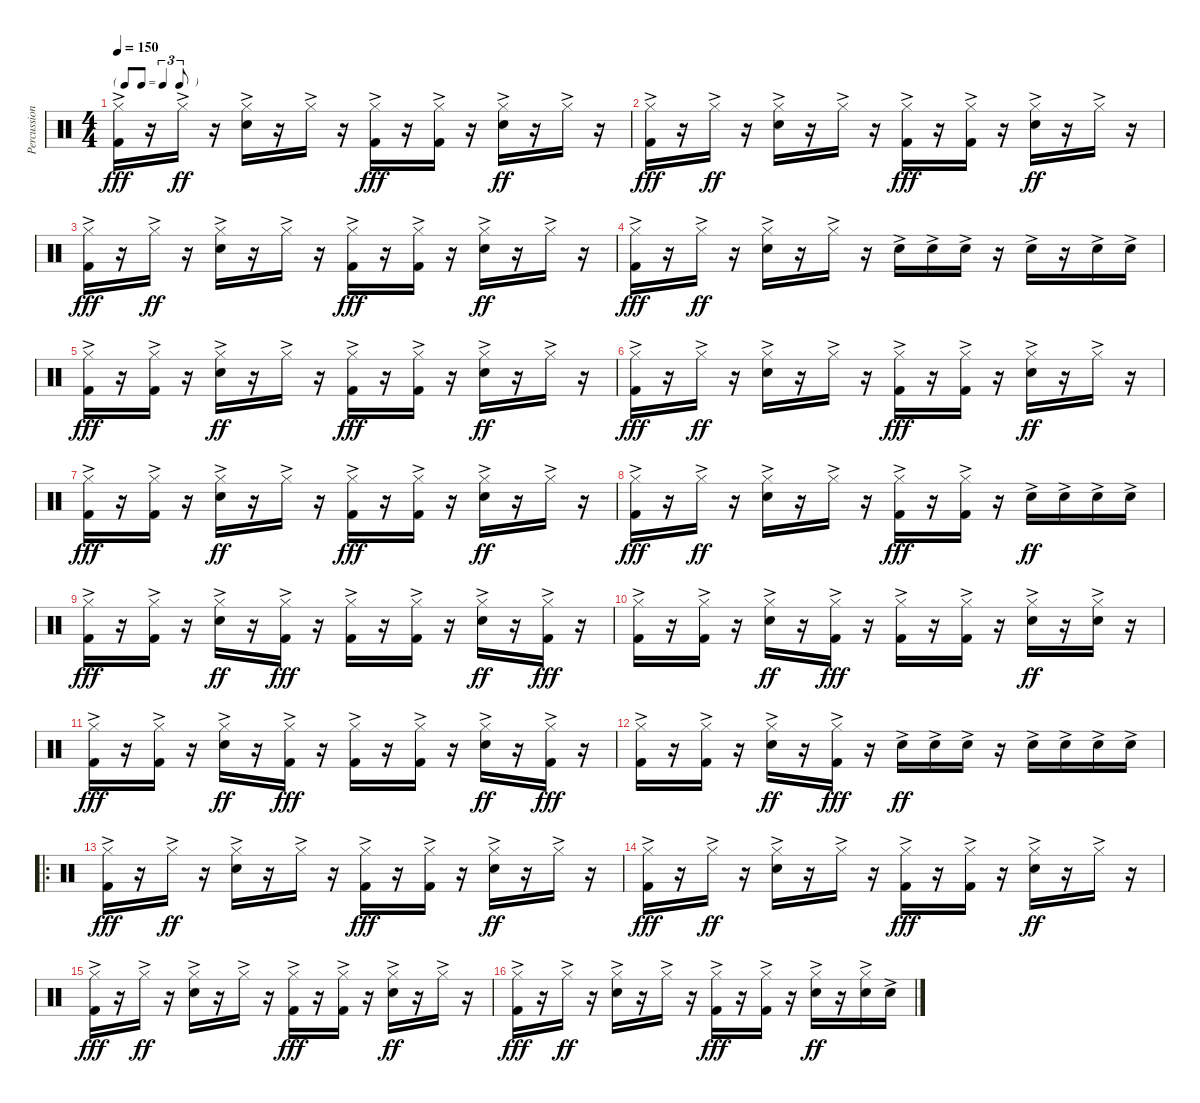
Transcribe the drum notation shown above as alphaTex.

\track ("Percussion" "Percussion") {instrument percussion}
\staff {score}
\articulation defaults
\ts (4 4)
\tf triplet8th
\tempo 150
\clef neutral
\ks c
("Hi-Hat (closed)"{ac} "Kick (hit) 2"{ac}).16{dy fff} r.16 "Hi-Hat (closed)"{ac}.16{dy ff} r.16 ("Hi-Hat (closed)"{ac} "Snare (hit) 2"{ac}).16 r.16 "Hi-Hat (closed)"{ac}.16 r.16 ("Hi-Hat (closed)"{ac} "Kick (hit) 2"{ac}).16{dy fff} r.16 ("Hi-Hat (closed)"{ac} "Kick (hit) 2"{ac}).16 r.16 ("Hi-Hat (closed)"{ac} "Snare (hit) 2"{ac}).16{dy ff} r.16 "Hi-Hat (closed)"{ac}.16 r.16 |
("Hi-Hat (closed)"{ac} "Kick (hit) 2"{ac}).16{dy fff} r.16 "Hi-Hat (closed)"{ac}.16{dy ff} r.16 ("Hi-Hat (closed)"{ac} "Snare (hit) 2"{ac}).16 r.16 "Hi-Hat (closed)"{ac}.16 r.16 ("Hi-Hat (closed)"{ac} "Kick (hit) 2"{ac}).16{dy fff} r.16 ("Hi-Hat (closed)"{ac} "Kick (hit) 2"{ac}).16 r.16 ("Hi-Hat (closed)"{ac} "Snare (hit) 2"{ac}).16{dy ff} r.16 "Hi-Hat (closed)"{ac}.16 r.16 |
("Hi-Hat (closed)"{ac} "Kick (hit) 2"{ac}).16{dy fff} r.16 "Hi-Hat (closed)"{ac}.16{dy ff} r.16 ("Hi-Hat (closed)"{ac} "Snare (hit) 2"{ac}).16 r.16 "Hi-Hat (closed)"{ac}.16 r.16 ("Hi-Hat (closed)"{ac} "Kick (hit) 2"{ac}).16{dy fff} r.16 ("Hi-Hat (closed)"{ac} "Kick (hit) 2"{ac}).16 r.16 ("Hi-Hat (closed)"{ac} "Snare (hit) 2"{ac}).16{dy ff} r.16 "Hi-Hat (closed)"{ac}.16 r.16 |
("Hi-Hat (closed)"{ac} "Kick (hit) 2"{ac}).16{dy fff} r.16 "Hi-Hat (closed)"{ac}.16{dy ff} r.16 ("Hi-Hat (closed)"{ac} "Snare (hit) 2"{ac}).16 r.16 "Hi-Hat (closed)"{ac}.16 r.16 "Snare (hit) 2"{ac}.16 "Snare (hit) 2"{ac}.16 "Snare (hit) 2"{ac}.16 r.16 "Snare (hit) 2"{ac}.16 r.16 "Snare (hit) 2"{ac}.16 "Snare (hit) 2"{ac}.16 |
("Hi-Hat (closed)"{ac} "Kick (hit) 2"{ac}).16{dy fff} r.16 ("Hi-Hat (closed)"{ac} "Kick (hit) 2"{ac}).16 r.16 ("Hi-Hat (closed)"{ac} "Snare (hit) 2"{ac}).16{dy ff} r.16 "Hi-Hat (closed)"{ac}.16 r.16 ("Hi-Hat (closed)"{ac} "Kick (hit) 2"{ac}).16{dy fff} r.16 ("Hi-Hat (closed)"{ac} "Kick (hit) 2"{ac}).16 r.16 ("Hi-Hat (closed)"{ac} "Snare (hit) 2"{ac}).16{dy ff} r.16 "Hi-Hat (closed)"{ac}.16 r.16 |
("Hi-Hat (closed)"{ac} "Kick (hit) 2"{ac}).16{dy fff} r.16 "Hi-Hat (closed)"{ac}.16{dy ff} r.16 ("Hi-Hat (closed)"{ac} "Snare (hit) 2"{ac}).16 r.16 "Hi-Hat (closed)"{ac}.16 r.16 ("Hi-Hat (closed)"{ac} "Kick (hit) 2"{ac}).16{dy fff} r.16 ("Hi-Hat (closed)"{ac} "Kick (hit) 2"{ac}).16 r.16 ("Hi-Hat (closed)"{ac} "Snare (hit) 2"{ac}).16{dy ff} r.16 "Hi-Hat (closed)"{ac}.16 r.16 |
("Hi-Hat (closed)"{ac} "Kick (hit) 2"{ac}).16{dy fff} r.16 ("Hi-Hat (closed)"{ac} "Kick (hit) 2"{ac}).16 r.16 ("Hi-Hat (closed)"{ac} "Snare (hit) 2"{ac}).16{dy ff} r.16 "Hi-Hat (closed)"{ac}.16 r.16 ("Hi-Hat (closed)"{ac} "Kick (hit) 2"{ac}).16{dy fff} r.16 ("Hi-Hat (closed)"{ac} "Kick (hit) 2"{ac}).16 r.16 ("Hi-Hat (closed)"{ac} "Snare (hit) 2"{ac}).16{dy ff} r.16 "Hi-Hat (closed)"{ac}.16 r.16 |
("Hi-Hat (closed)"{ac} "Kick (hit) 2"{ac}).16{dy fff} r.16 "Hi-Hat (closed)"{ac}.16{dy ff} r.16 ("Hi-Hat (closed)"{ac} "Snare (hit) 2"{ac}).16 r.16 "Hi-Hat (closed)"{ac}.16 r.16 ("Hi-Hat (closed)"{ac} "Kick (hit) 2"{ac}).16{dy fff} r.16 ("Hi-Hat (closed)"{ac} "Kick (hit) 2"{ac}).16 r.16 "Snare (hit) 2"{ac}.16{dy ff} "Snare (hit) 2"{ac}.16 "Snare (hit) 2"{ac}.16 "Snare (hit) 2"{ac}.16 |
("Hi-Hat (closed)"{ac} "Kick (hit) 2"{ac}).16{dy fff} r.16 ("Hi-Hat (closed)"{ac} "Kick (hit) 2"{ac}).16 r.16 ("Hi-Hat (closed)"{ac} "Snare (hit) 2"{ac}).16{dy ff} r.16 ("Hi-Hat (closed)"{ac} "Kick (hit) 2"{ac}).16{dy fff} r.16 ("Hi-Hat (closed)"{ac} "Kick (hit) 2"{ac}).16 r.16 ("Hi-Hat (closed)"{ac} "Kick (hit) 2"{ac}).16 r.16 ("Hi-Hat (closed)"{ac} "Snare (hit) 2"{ac}).16{dy ff} r.16 ("Hi-Hat (closed)"{ac} "Kick (hit) 2"{ac}).16{dy fff} r.16 |
("Hi-Hat (closed)"{ac} "Kick (hit) 2"{ac}).16 r.16 ("Hi-Hat (closed)"{ac} "Kick (hit) 2"{ac}).16 r.16 ("Hi-Hat (closed)"{ac} "Snare (hit) 2"{ac}).16{dy ff} r.16 ("Hi-Hat (closed)"{ac} "Kick (hit) 2"{ac}).16{dy fff} r.16 ("Hi-Hat (closed)"{ac} "Kick (hit) 2"{ac}).16 r.16 ("Hi-Hat (closed)"{ac} "Kick (hit) 2"{ac}).16 r.16 ("Hi-Hat (closed)"{ac} "Snare (hit) 2"{ac}).16{dy ff} r.16 ("Hi-Hat (closed)"{ac} "Snare (hit) 2"{ac}).16 r.16 |
("Hi-Hat (closed)"{ac} "Kick (hit) 2"{ac}).16{dy fff} r.16 ("Hi-Hat (closed)"{ac} "Kick (hit) 2"{ac}).16 r.16 ("Hi-Hat (closed)"{ac} "Snare (hit) 2"{ac}).16{dy ff} r.16 ("Hi-Hat (closed)"{ac} "Kick (hit) 2"{ac}).16{dy fff} r.16 ("Hi-Hat (closed)"{ac} "Kick (hit) 2"{ac}).16 r.16 ("Hi-Hat (closed)"{ac} "Kick (hit) 2"{ac}).16 r.16 ("Hi-Hat (closed)"{ac} "Snare (hit) 2"{ac}).16{dy ff} r.16 ("Hi-Hat (closed)"{ac} "Kick (hit) 2"{ac}).16{dy fff} r.16 |
("Hi-Hat (closed)"{ac} "Kick (hit) 2"{ac}).16 r.16 ("Hi-Hat (closed)"{ac} "Kick (hit) 2"{ac}).16 r.16 ("Hi-Hat (closed)"{ac} "Snare (hit) 2"{ac}).16{dy ff} r.16 ("Hi-Hat (closed)"{ac} "Kick (hit) 2"{ac}).16{dy fff} r.16 "Snare (hit) 2"{ac}.16{dy ff} "Snare (hit) 2"{ac}.16 "Snare (hit) 2"{ac}.16 r.16 "Snare (hit) 2"{ac}.16 "Snare (hit) 2"{ac}.16 "Snare (hit) 2"{ac}.16 "Snare (hit) 2"{ac}.16 |
\ro
("Hi-Hat (closed)"{ac} "Kick (hit) 2"{ac}).16{dy fff} r.16 "Hi-Hat (closed)"{ac}.16{dy ff} r.16 ("Hi-Hat (closed)"{ac} "Snare (hit) 2"{ac}).16 r.16 "Hi-Hat (closed)"{ac}.16 r.16 ("Hi-Hat (closed)"{ac} "Kick (hit) 2"{ac}).16{dy fff} r.16 ("Hi-Hat (closed)"{ac} "Kick (hit) 2"{ac}).16 r.16 ("Hi-Hat (closed)"{ac} "Snare (hit) 2"{ac}).16{dy ff} r.16 "Hi-Hat (closed)"{ac}.16 r.16 |
("Hi-Hat (closed)"{ac} "Kick (hit) 2"{ac}).16{dy fff} r.16 "Hi-Hat (closed)"{ac}.16{dy ff} r.16 ("Hi-Hat (closed)"{ac} "Snare (hit) 2"{ac}).16 r.16 "Hi-Hat (closed)"{ac}.16 r.16 ("Hi-Hat (closed)"{ac} "Kick (hit) 2"{ac}).16{dy fff} r.16 ("Hi-Hat (closed)"{ac} "Kick (hit) 2"{ac}).16 r.16 ("Hi-Hat (closed)"{ac} "Snare (hit) 2"{ac}).16{dy ff} r.16 "Hi-Hat (closed)"{ac}.16 r.16 |
("Hi-Hat (closed)"{ac} "Kick (hit) 2"{ac}).16{dy fff} r.16 "Hi-Hat (closed)"{ac}.16{dy ff} r.16 ("Hi-Hat (closed)"{ac} "Snare (hit) 2"{ac}).16 r.16 "Hi-Hat (closed)"{ac}.16 r.16 ("Hi-Hat (closed)"{ac} "Kick (hit) 2"{ac}).16{dy fff} r.16 ("Hi-Hat (closed)"{ac} "Kick (hit) 2"{ac}).16 r.16 ("Hi-Hat (closed)"{ac} "Snare (hit) 2"{ac}).16{dy ff} r.16 "Hi-Hat (closed)"{ac}.16 r.16 |
("Hi-Hat (closed)"{ac} "Kick (hit) 2"{ac}).16{dy fff} r.16 "Hi-Hat (closed)"{ac}.16{dy ff} r.16 ("Hi-Hat (closed)"{ac} "Snare (hit) 2"{ac}).16 r.16 "Hi-Hat (closed)"{ac}.16 r.16 ("Hi-Hat (closed)"{ac} "Kick (hit) 2"{ac}).16{dy fff} r.16 ("Hi-Hat (closed)"{ac} "Kick (hit) 2"{ac}).16 r.16 ("Hi-Hat (closed)"{ac} "Snare (hit) 2"{ac}).16{dy ff} r.16 ("Hi-Hat (closed)"{ac} "Snare (hit) 2"{ac}).16 "Snare (hit) 2"{ac}.16
